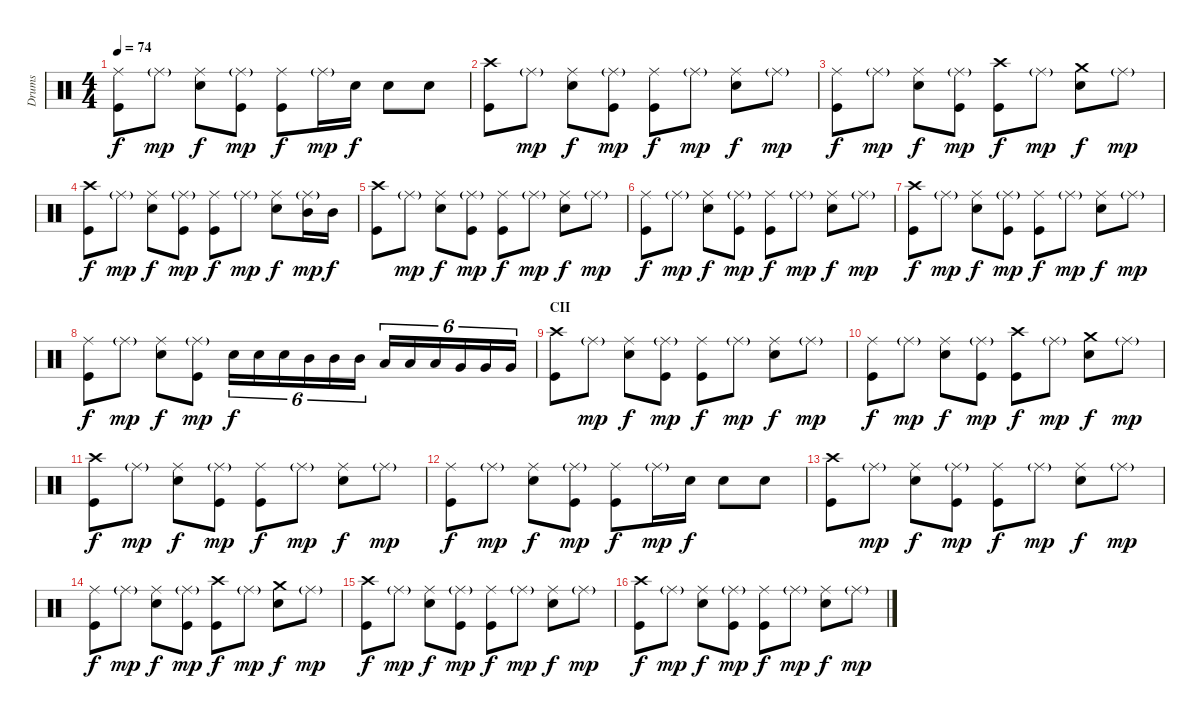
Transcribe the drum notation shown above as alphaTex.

\track ("Drums" "Drums") {instrument percussion}
\staff {score}
\articulation defaults
\ts (4 4)
\tempo 74
\clef neutral
\ks c
("Ride (middle)" "Kick (hit)").8{dy f} "Ride (middle)"{g}.8{dy mp} ("Ride (middle)" "Snare (hit) 2").8{dy f} ("Ride (middle)"{g} "Kick (hit)").8{dy mp} ("Ride (middle)" "Kick (hit)").8{dy f} "Ride (middle)"{g}.16{dy mp} "Snare (hit) 2".16{dy f} "Snare (hit) 2".8 "Snare (hit) 2".8 |
("Crash high (hit)" "Kick (hit)").8 "Ride (middle)"{g}.8{dy mp} ("Ride (middle)" "Snare (hit) 2").8{dy f} ("Ride (middle)"{g} "Kick (hit)").8{dy mp} ("Ride (middle)" "Kick (hit)").8{dy f} "Ride (middle)"{g}.8{dy mp} ("Ride (middle)" "Snare (hit) 2").8{dy f} "Ride (middle)"{g}.8{dy mp} |
("Ride (middle)" "Kick (hit)").8{dy f} "Ride (middle)"{g}.8{dy mp} ("Ride (middle)" "Snare (hit) 2").8{dy f} ("Ride (middle)"{g} "Kick (hit)").8{dy mp} ("Crash high (hit)" "Kick (hit)").8{dy f} "Ride (middle)"{g}.8{dy mp} ("Crash medium (hit)" "Snare (hit) 2").8{dy f} "Ride (middle)"{g}.8{dy mp} |
("Crash high (hit)" "Kick (hit)").8{dy f} "Ride (middle)"{g}.8{dy mp} ("Ride (middle)" "Snare (hit) 2").8{dy f} ("Ride (middle)"{g} "Kick (hit)").8{dy mp} ("Ride (middle)" "Kick (hit)").8{dy f} "Ride (middle)"{g}.8{dy mp} ("Ride (middle)" "Snare (hit) 2").8{dy f} ("Ride (middle)"{g} "Mid Tom (hit)").16{dy mp} "Mid Tom (hit)".16{dy f} |
("Crash high (hit)" "Kick (hit)").8 "Ride (middle)"{g}.8{dy mp} ("Ride (middle)" "Snare (hit) 2").8{dy f} ("Ride (middle)"{g} "Kick (hit)").8{dy mp} ("Ride (middle)" "Kick (hit)").8{dy f} "Ride (middle)"{g}.8{dy mp} ("Ride (middle)" "Snare (hit) 2").8{dy f} "Ride (middle)"{g}.8{dy mp} |
("Ride (middle)" "Kick (hit)").8{dy f} "Ride (middle)"{g}.8{dy mp} ("Ride (middle)" "Snare (hit) 2").8{dy f} ("Ride (middle)"{g} "Kick (hit)").8{dy mp} ("Ride (middle)" "Kick (hit)").8{dy f} "Ride (middle)"{g}.8{dy mp} ("Ride (middle)" "Snare (hit) 2").8{dy f} "Ride (middle)"{g}.8{dy mp} |
("Crash high (hit)" "Kick (hit)").8{dy f} "Ride (middle)"{g}.8{dy mp} ("Ride (middle)" "Snare (hit) 2").8{dy f} ("Ride (middle)"{g} "Kick (hit)").8{dy mp} ("Ride (middle)" "Kick (hit)").8{dy f} "Ride (middle)"{g}.8{dy mp} ("Ride (middle)" "Snare (hit) 2").8{dy f} "Ride (middle)"{g}.8{dy mp} |
("Ride (middle)" "Kick (hit)").8{dy f} "Ride (middle)"{g}.8{dy mp} ("Ride (middle)" "Snare (hit) 2").8{dy f} ("Ride (middle)"{g} "Kick (hit)").8{dy mp} "Snare (hit) 2".16{tu (6 4) dy f} "Snare (hit) 2".16{tu (6 4)} "Snare (hit) 2".16{tu (6 4)} "Mid Tom (hit)".16{tu (6 4)} "Mid Tom (hit)".16{tu (6 4)} "Mid Tom (hit)".16{tu (6 4)} "Low Tom (hit)".16{tu (6 4)} "Low Tom (hit)".16{tu (6 4)} "Low Tom (hit)".16{tu (6 4)} "Very Low Tom (hit)".16{tu (6 4)} "Very Low Tom (hit)".16{tu (6 4)} "Very Low Tom (hit)".16{tu (6 4)} |
\section ("" "CII")
("Crash high (hit)" "Kick (hit)").8 "Ride (middle)"{g}.8{dy mp} ("Ride (middle)" "Snare (hit) 2").8{dy f} ("Ride (middle)"{g} "Kick (hit)").8{dy mp} ("Ride (middle)" "Kick (hit)").8{dy f} "Ride (middle)"{g}.8{dy mp} ("Ride (middle)" "Snare (hit) 2").8{dy f} "Ride (middle)"{g}.8{dy mp} |
("Ride (middle)" "Kick (hit)").8{dy f} "Ride (middle)"{g}.8{dy mp} ("Ride (middle)" "Snare (hit) 2").8{dy f} ("Ride (middle)"{g} "Kick (hit)").8{dy mp} ("Crash high (hit)" "Kick (hit)").8{dy f} "Ride (middle)"{g}.8{dy mp} ("Crash medium (hit)" "Snare (hit) 2").8{dy f} "Ride (middle)"{g}.8{dy mp} |
("Crash high (hit)" "Kick (hit)").8{dy f} "Ride (middle)"{g}.8{dy mp} ("Ride (middle)" "Snare (hit) 2").8{dy f} ("Ride (middle)"{g} "Kick (hit)").8{dy mp} ("Ride (middle)" "Kick (hit)").8{dy f} "Ride (middle)"{g}.8{dy mp} ("Ride (middle)" "Snare (hit) 2").8{dy f} "Ride (middle)"{g}.8{dy mp} |
("Ride (middle)" "Kick (hit)").8{dy f} "Ride (middle)"{g}.8{dy mp} ("Ride (middle)" "Snare (hit) 2").8{dy f} ("Ride (middle)"{g} "Kick (hit)").8{dy mp} ("Ride (middle)" "Kick (hit)").8{dy f} "Ride (middle)"{g}.16{dy mp} "Snare (hit) 2".16{dy f} "Snare (hit) 2".8 "Snare (hit) 2".8 |
("Crash high (hit)" "Kick (hit)").8 "Ride (middle)"{g}.8{dy mp} ("Ride (middle)" "Snare (hit) 2").8{dy f} ("Ride (middle)"{g} "Kick (hit)").8{dy mp} ("Ride (middle)" "Kick (hit)").8{dy f} "Ride (middle)"{g}.8{dy mp} ("Ride (middle)" "Snare (hit) 2").8{dy f} "Ride (middle)"{g}.8{dy mp} |
("Ride (middle)" "Kick (hit)").8{dy f} "Ride (middle)"{g}.8{dy mp} ("Ride (middle)" "Snare (hit) 2").8{dy f} ("Ride (middle)"{g} "Kick (hit)").8{dy mp} ("Crash high (hit)" "Kick (hit)").8{dy f} "Ride (middle)"{g}.8{dy mp} ("Crash medium (hit)" "Snare (hit) 2").8{dy f} "Ride (middle)"{g}.8{dy mp} |
("Crash high (hit)" "Kick (hit)").8{dy f} "Ride (middle)"{g}.8{dy mp} ("Ride (middle)" "Snare (hit) 2").8{dy f} ("Ride (middle)"{g} "Kick (hit)").8{dy mp} ("Ride (middle)" "Kick (hit)").8{dy f} "Ride (middle)"{g}.8{dy mp} ("Ride (middle)" "Snare (hit) 2").8{dy f} "Ride (middle)"{g}.8{dy mp} |
("Crash high (hit)" "Kick (hit)").8{dy f} "Ride (middle)"{g}.8{dy mp} ("Ride (middle)" "Snare (hit) 2").8{dy f} ("Ride (middle)"{g} "Kick (hit)").8{dy mp} ("Ride (middle)" "Kick (hit)").8{dy f} "Ride (middle)"{g}.8{dy mp} ("Ride (middle)" "Snare (hit) 2").8{dy f} "Ride (middle)"{g}.8{dy mp}
